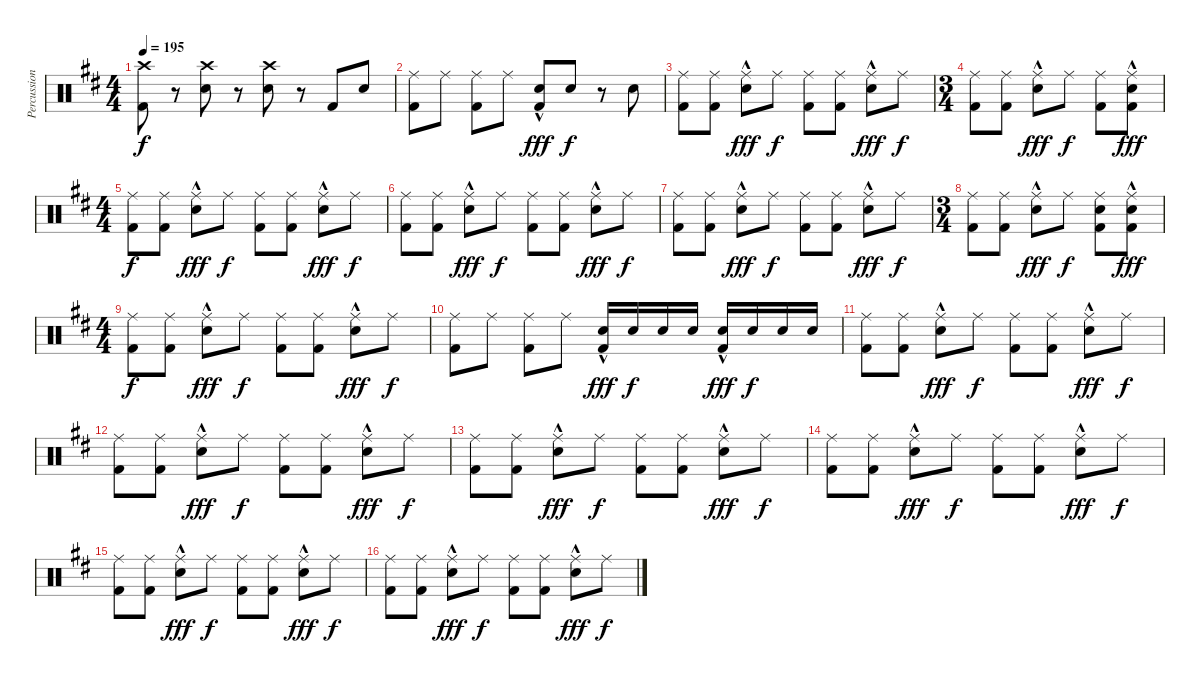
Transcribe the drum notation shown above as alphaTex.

\track ("Percussion" "Percussion") {instrument percussion}
\staff {score}
\articulation defaults
\ts (4 4)
\tempo 195
\clef neutral
\ks d
("Crash high (hit)" "Kick (hit) 2").8{dy f} r.8 ("Crash high (hit)" "Electric Snare (hit)").8 r.8 ("Crash high (hit)" "Electric Snare (hit)").8 r.8 "Kick (hit) 2".8 "Electric Snare (hit)".8 |
("Ride (middle)" "Kick (hit) 2").8 "Ride (middle)".8 ("Ride (middle)" "Kick (hit) 2").8 "Ride (middle)".8 ("Electric Snare (hit)"{hac} "Kick (hit) 2").8{dy fff} "Electric Snare (hit)".8{dy f} r.8 "Electric Snare (hit)".8 |
("Ride (middle)" "Kick (hit) 2").8 ("Ride (middle)" "Kick (hit) 2").8 ("Ride (middle)" "Electric Snare (hit)"{hac}).8{dy fff} "Ride (middle)".8{dy f} ("Ride (middle)" "Kick (hit) 2").8 ("Ride (middle)" "Kick (hit) 2").8 ("Ride (middle)" "Electric Snare (hit)"{hac}).8{dy fff} "Ride (middle)".8{dy f} |
\ts (3 4)
("Ride (middle)" "Kick (hit) 2").8 ("Ride (middle)" "Kick (hit) 2").8 ("Ride (middle)" "Electric Snare (hit)"{hac}).8{dy fff} "Ride (middle)".8{dy f} ("Ride (middle)" "Kick (hit) 2").8 ("Ride (middle)" "Electric Snare (hit)"{hac} "Kick (hit) 2").8{dy fff} |
\ts (4 4)
("Ride (middle)" "Kick (hit) 2").8{dy f} ("Ride (middle)" "Kick (hit) 2").8 ("Ride (middle)" "Electric Snare (hit)"{hac}).8{dy fff} "Ride (middle)".8{dy f} ("Ride (middle)" "Kick (hit) 2").8 ("Ride (middle)" "Kick (hit) 2").8 ("Ride (middle)" "Electric Snare (hit)"{hac}).8{dy fff} "Ride (middle)".8{dy f} |
("Ride (middle)" "Kick (hit) 2").8 ("Ride (middle)" "Kick (hit) 2").8 ("Ride (middle)" "Electric Snare (hit)"{hac}).8{dy fff} "Ride (middle)".8{dy f} ("Ride (middle)" "Kick (hit) 2").8 ("Ride (middle)" "Kick (hit) 2").8 ("Ride (middle)" "Electric Snare (hit)"{hac}).8{dy fff} "Ride (middle)".8{dy f} |
("Ride (middle)" "Kick (hit) 2").8 ("Ride (middle)" "Kick (hit) 2").8 ("Ride (middle)" "Electric Snare (hit)"{hac}).8{dy fff} "Ride (middle)".8{dy f} ("Ride (middle)" "Kick (hit) 2").8 ("Ride (middle)" "Kick (hit) 2").8 ("Ride (middle)" "Electric Snare (hit)"{hac}).8{dy fff} "Ride (middle)".8{dy f} |
\ts (3 4)
("Ride (middle)" "Kick (hit) 2").8 ("Ride (middle)" "Kick (hit) 2").8 ("Ride (middle)" "Electric Snare (hit)"{hac}).8{dy fff} "Ride (middle)".8{dy f} ("Ride (middle)" "Electric Snare (hit)" "Kick (hit) 2").8 ("Ride (middle)" "Electric Snare (hit)"{hac} "Kick (hit) 2").8{dy fff} |
\ts (4 4)
("Ride (middle)" "Kick (hit) 2").8{dy f} ("Ride (middle)" "Kick (hit) 2").8 ("Ride (middle)" "Electric Snare (hit)"{hac}).8{dy fff} "Ride (middle)".8{dy f} ("Ride (middle)" "Kick (hit) 2").8 ("Ride (middle)" "Kick (hit) 2").8 ("Ride (middle)" "Electric Snare (hit)"{hac}).8{dy fff} "Ride (middle)".8{dy f} |
("Ride (middle)" "Kick (hit) 2").8 "Ride (middle)".8 ("Ride (middle)" "Kick (hit) 2").8 "Ride (middle)".8 ("Electric Snare (hit)"{hac} "Kick (hit) 2").16{dy fff} "Electric Snare (hit)".16{dy f} "Electric Snare (hit)".16 "Electric Snare (hit)".16 ("Electric Snare (hit)"{hac} "Kick (hit) 2").16{dy fff} "Electric Snare (hit)".16{dy f} "Electric Snare (hit)".16 "Electric Snare (hit)".16 |
("Ride (middle)" "Kick (hit) 2").8 ("Ride (middle)" "Kick (hit) 2").8 ("Ride (middle)" "Electric Snare (hit)"{hac}).8{dy fff} "Ride (middle)".8{dy f} ("Ride (middle)" "Kick (hit) 2").8 ("Ride (middle)" "Kick (hit) 2").8 ("Ride (middle)" "Electric Snare (hit)"{hac}).8{dy fff} "Ride (middle)".8{dy f} |
("Ride (middle)" "Kick (hit) 2").8 ("Ride (middle)" "Kick (hit) 2").8 ("Ride (middle)" "Electric Snare (hit)"{hac}).8{dy fff} "Ride (middle)".8{dy f} ("Ride (middle)" "Kick (hit) 2").8 ("Ride (middle)" "Kick (hit) 2").8 ("Ride (middle)" "Electric Snare (hit)"{hac}).8{dy fff} "Ride (middle)".8{dy f} |
("Ride (middle)" "Kick (hit) 2").8 ("Ride (middle)" "Kick (hit) 2").8 ("Ride (middle)" "Electric Snare (hit)"{hac}).8{dy fff} "Ride (middle)".8{dy f} ("Ride (middle)" "Kick (hit) 2").8 ("Ride (middle)" "Kick (hit) 2").8 ("Ride (middle)" "Electric Snare (hit)"{hac}).8{dy fff} "Ride (middle)".8{dy f} |
("Ride (middle)" "Kick (hit) 2").8 ("Ride (middle)" "Kick (hit) 2").8 ("Ride (middle)" "Electric Snare (hit)"{hac}).8{dy fff} "Ride (middle)".8{dy f} ("Ride (middle)" "Kick (hit) 2").8 ("Ride (middle)" "Kick (hit) 2").8 ("Ride (middle)" "Electric Snare (hit)"{hac}).8{dy fff} "Ride (middle)".8{dy f} |
("Ride (middle)" "Kick (hit) 2").8 ("Ride (middle)" "Kick (hit) 2").8 ("Ride (middle)" "Electric Snare (hit)"{hac}).8{dy fff} "Ride (middle)".8{dy f} ("Ride (middle)" "Kick (hit) 2").8 ("Ride (middle)" "Kick (hit) 2").8 ("Ride (middle)" "Electric Snare (hit)"{hac}).8{dy fff} "Ride (middle)".8{dy f} |
("Ride (middle)" "Kick (hit) 2").8 ("Ride (middle)" "Kick (hit) 2").8 ("Ride (middle)" "Electric Snare (hit)"{hac}).8{dy fff} "Ride (middle)".8{dy f} ("Ride (middle)" "Kick (hit) 2").8 ("Ride (middle)" "Kick (hit) 2").8 ("Ride (middle)" "Electric Snare (hit)"{hac}).8{dy fff} "Ride (middle)".8{dy f}
